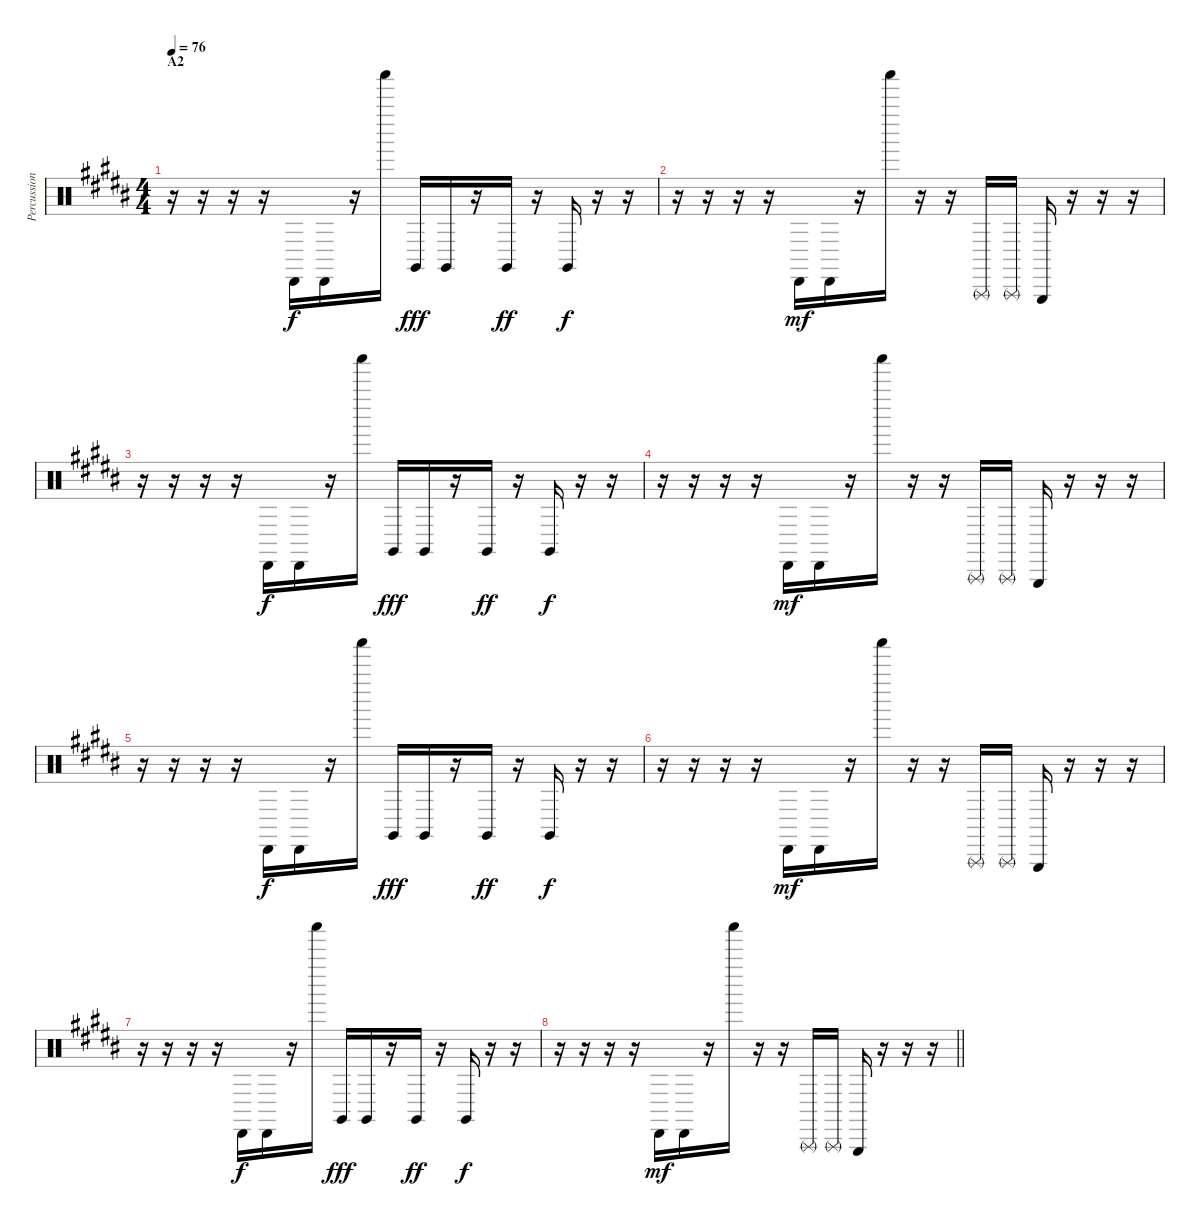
\track ("Percussion" "Percussion") {instrument percussion}
\staff {score}
\articulation defaults
\ts (4 4)
\section ("" "A2")
\tempo 76
\clef neutral
\ks b
r.16{dy mf} r.16 r.16 r.16 "Cabasa (hit)".16{dy f} "Cabasa (hit)".16 r.16 "Shaker (hit)".16 "Claves (hit)".16{dy fff} "Claves (hit)".16 r.16 "Claves (hit)".16{dy ff} r.16 "Claves (hit)".16{dy f} r.16 r.16 |
r.16 r.16 r.16 r.16 "Cabasa (hit)".16{dy mf} "Cabasa (hit)".16 r.16 "Shaker (hit)".16 r.16 r.16 "Triangle (rnute)".16 "Triangle (rnute)".16 "Triangle (hit)".16 r.16 r.16 r.16 |
r.16 r.16 r.16 r.16 "Cabasa (hit)".16{dy f} "Cabasa (hit)".16 r.16 "Shaker (hit)".16 "Claves (hit)".16{dy fff} "Claves (hit)".16 r.16 "Claves (hit)".16{dy ff} r.16 "Claves (hit)".16{dy f} r.16 r.16 |
r.16 r.16 r.16 r.16 "Cabasa (hit)".16{dy mf} "Cabasa (hit)".16 r.16 "Shaker (hit)".16 r.16 r.16 "Triangle (rnute)".16 "Triangle (rnute)".16 "Triangle (hit)".16 r.16 r.16 r.16 |
r.16 r.16 r.16 r.16 "Cabasa (hit)".16{dy f} "Cabasa (hit)".16 r.16 "Shaker (hit)".16 "Claves (hit)".16{dy fff} "Claves (hit)".16 r.16 "Claves (hit)".16{dy ff} r.16 "Claves (hit)".16{dy f} r.16 r.16 |
r.16 r.16 r.16 r.16 "Cabasa (hit)".16{dy mf} "Cabasa (hit)".16 r.16 "Shaker (hit)".16 r.16 r.16 "Triangle (rnute)".16 "Triangle (rnute)".16 "Triangle (hit)".16 r.16 r.16 r.16 |
r.16 r.16 r.16 r.16 "Cabasa (hit)".16{dy f} "Cabasa (hit)".16 r.16 "Shaker (hit)".16 "Claves (hit)".16{dy fff} "Claves (hit)".16 r.16 "Claves (hit)".16{dy ff} r.16 "Claves (hit)".16{dy f} r.16 r.16 |
\barLineRight lightlight
r.16 r.16 r.16 r.16 "Cabasa (hit)".16{dy mf} "Cabasa (hit)".16 r.16 "Shaker (hit)".16 r.16 r.16 "Triangle (rnute)".16 "Triangle (rnute)".16 "Triangle (hit)".16 r.16 r.16 r.16
